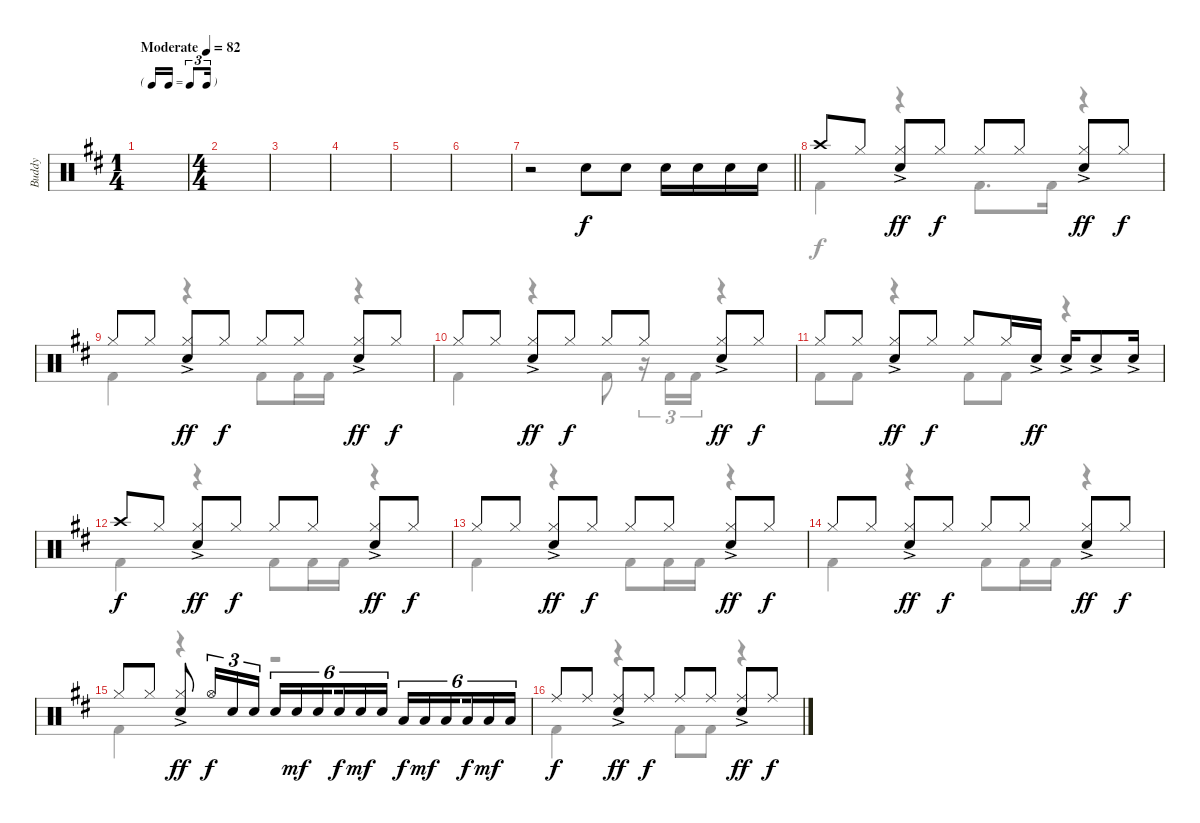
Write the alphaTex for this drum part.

\track ("Buddy" "Buddy") {instrument percussion}
\staff {score}
\articulation defaults
\voice
\ts (1 4)
\tf triplet16th
\tempo (82 "Moderate")
\clef neutral
\ks d
|
\ts (4 4)
|
|
|
|
|
\barLineRight lightlight
r.2 "Snare (hit) 2".8 "Snare (hit) 2".8 "Snare (hit) 2".16 "Snare (hit) 2".16 "Snare (hit) 2".16 "Snare (hit) 2".16 |
"Crash high (hit)".8 "Hi-Hat (closed)".8 ("Hi-Hat (closed)"{ac} "Snare (hit) 2"{ac}).8{dy ff} "Hi-Hat (closed)".8{dy f} "Hi-Hat (closed)".8 "Hi-Hat (closed)".8 ("Hi-Hat (closed)"{ac} "Snare (hit) 2"{ac}).8{dy ff} "Hi-Hat (closed)".8{dy f} |
"Hi-Hat (closed)".8 "Hi-Hat (closed)".8 ("Hi-Hat (closed)"{ac} "Snare (hit) 2"{ac}).8{dy ff} "Hi-Hat (closed)".8{dy f} "Hi-Hat (closed)".8 "Hi-Hat (closed)".8 ("Hi-Hat (closed)"{ac} "Snare (hit) 2"{ac}).8{dy ff} "Hi-Hat (closed)".8{dy f} |
"Hi-Hat (closed)".8 "Hi-Hat (closed)".8 ("Hi-Hat (closed)"{ac} "Snare (hit) 2"{ac}).8{dy ff} "Hi-Hat (closed)".8{dy f} "Hi-Hat (closed)".8 "Hi-Hat (closed)".8 ("Hi-Hat (closed)"{ac} "Snare (hit) 2"{ac}).8{dy ff} "Hi-Hat (closed)".8{dy f} |
"Hi-Hat (closed)".8 "Hi-Hat (closed)".8 ("Hi-Hat (closed)"{ac} "Snare (hit) 2"{ac}).8{dy ff} "Hi-Hat (closed)".8{dy f} "Hi-Hat (closed)".8 "Hi-Hat (closed)".16 "Snare (hit) 2"{ac}.16{dy ff} "Snare (hit) 2"{ac}.16 "Snare (hit) 2"{ac}.8 "Snare (hit) 2"{ac}.16 |
"Crash high (hit)".8{dy f} "Hi-Hat (closed)".8 ("Hi-Hat (closed)"{ac} "Snare (hit) 2"{ac}).8{dy ff} "Hi-Hat (closed)".8{dy f} "Hi-Hat (closed)".8 "Hi-Hat (closed)".8 ("Hi-Hat (closed)"{ac} "Snare (hit) 2"{ac}).8{dy ff} "Hi-Hat (closed)".8{dy f} |
"Hi-Hat (closed)".8 "Hi-Hat (closed)".8 ("Hi-Hat (closed)"{ac} "Snare (hit) 2"{ac}).8{dy ff} "Hi-Hat (closed)".8{dy f} "Hi-Hat (closed)".8 "Hi-Hat (closed)".8 ("Hi-Hat (closed)"{ac} "Snare (hit) 2"{ac}).8{dy ff} "Hi-Hat (closed)".8{dy f} |
"Hi-Hat (closed)".8 "Hi-Hat (closed)".8 ("Hi-Hat (closed)"{ac} "Snare (hit) 2"{ac}).8{dy ff} "Hi-Hat (closed)".8{dy f} "Hi-Hat (closed)".8 "Hi-Hat (closed)".8 ("Hi-Hat (closed)"{ac} "Snare (hit) 2"{ac}).8{dy ff} "Hi-Hat (closed)".8{dy f} |
"Hi-Hat (closed)".8 "Hi-Hat (closed)".8 ("Hi-Hat (closed)"{ac} "Snare (hit) 2"{ac}).8{dy ff} "Hi-Hat (open)".16{tu (3 2) dy f} "Snare (hit) 2".16{tu (3 2)} "Snare (hit) 2".16{tu (3 2)} "Snare (hit) 2".16{tu (6 4)} "Snare (hit) 2".16{tu (6 4) dy mf} "Snare (hit) 2".16{tu (6 4) beam splitsecondary} "Snare (hit) 2".16{tu (6 4) dy f} "Snare (hit) 2".16{tu (6 4) dy mf} "Snare (hit) 2".16{tu (6 4)} "Low Tom (hit)".16{tu (6 4) dy f} "Low Tom (hit)".16{tu (6 4) dy mf} "Low Tom (hit)".16{tu (6 4) beam splitsecondary} "Low Floor Tom (hit)".16{tu (6 4) dy f} "Low Floor Tom (hit)".16{tu (6 4) dy mf} "Low Floor Tom (hit)".16{tu (6 4)} |
"Ride (middle)".8{dy f} "Ride (middle)".8 ("Ride (middle)"{ac} "Snare (hit) 2"{ac}).8{dy ff} "Ride (middle)".8{dy f} "Ride (middle)".8 "Ride (middle)".8 ("Ride (middle)"{ac} "Snare (hit) 2"{ac}).8{dy ff} "Ride (middle)".8{dy f}
\voice
\clef neutral
\ottava regular
\simile none
\ks d
|
|
|
|
|
|
\barLineRight lightlight
|
"Kick (hit) 2".4 r.4 "Kick (hit) 2".8{d} "Kick (hit) 2".16 r.4 |
"Kick (hit) 2".4 r.4 "Kick (hit) 2".8 "Kick (hit) 2".16 "Kick (hit) 2".16 r.4 |
"Kick (hit) 2".4 r.4 "Kick (hit) 2".8 r.16{tu (3 2)} "Kick (hit) 2".16{tu (3 2)} "Kick (hit) 2".16{tu (3 2)} r.4 |
"Kick (hit) 2".8 "Kick (hit) 2".8 r.4 "Kick (hit) 2".8 "Kick (hit) 2".8 r.4 |
"Kick (hit) 2".4 r.4 "Kick (hit) 2".8 "Kick (hit) 2".16 "Kick (hit) 2".16 r.4 |
"Kick (hit) 2".4 r.4 "Kick (hit) 2".8 "Kick (hit) 2".16 "Kick (hit) 2".16 r.4 |
"Kick (hit) 2".4 r.4 "Kick (hit) 2".8 "Kick (hit) 2".16 "Kick (hit) 2".16 r.4 |
"Kick (hit) 2".4 r.4 r.2 |
"Kick (hit) 2".4 r.4 "Kick (hit) 2".8 "Kick (hit) 2".8 r.4
